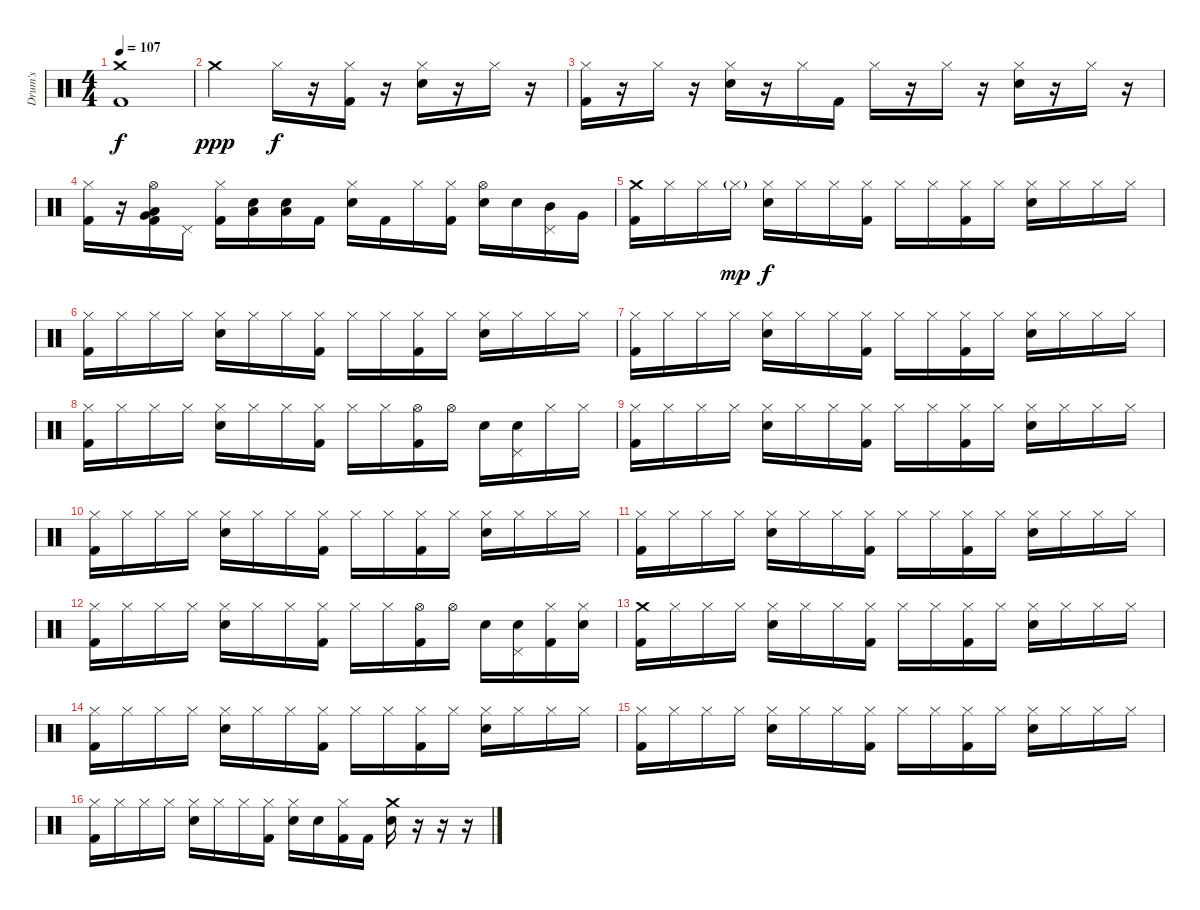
\track ("Drum's" "Drum's") {instrument percussion}
\staff {score}
\articulation defaults
\ts (4 4)
\tempo 107
\clef neutral
\ks c
("Crash medium (hit)" "Kick (hit) 2").1{dy f} |
"Crash medium (hit)".2{dy ppp} "Hi-Hat (closed)".16{dy f} r.16 ("Hi-Hat (closed)" "Kick (hit) 2").16 r.16 ("Hi-Hat (closed)" "Snare (hit) 2").16 r.16 "Hi-Hat (closed)".16 r.16 |
("Hi-Hat (closed)" "Kick (hit) 2").16 r.16 "Hi-Hat (closed)".16 r.16 ("Hi-Hat (closed)" "Snare (hit) 2").16 r.16 "Hi-Hat (closed)".16 "Kick (hit) 2".16 "Hi-Hat (closed)".16 r.16 "Hi-Hat (closed)".16 r.16 ("Hi-Hat (closed)" "Snare (hit) 2").16 r.16 "Hi-Hat (closed)".16 r.16 |
("Hi-Hat (closed)" "Kick (hit) 2").16 r.16 ("Hi-Hat (open)" "Low Floor Tom (hit)" "Very Low Tom (hit)" "Kick (hit) 2").16 "Pedal Hi-Hat (hit)".16 ("Hi-Hat (closed)" "Kick (hit) 2").16 ("Low Floor Tom (hit)" "Snare (hit) 2").16 ("Low Floor Tom (hit)" "Snare (hit) 2").16 "Kick (hit) 2".16 ("Hi-Hat (closed)" "Snare (hit) 2").16 "Kick (hit) 2".16 "Hi-Hat (closed)".16 ("Hi-Hat (closed)" "Kick (hit) 2").16 ("Hi-Hat (open)" "Snare (hit) 2").16 "Snare (hit) 2".16 ("Pedal Hi-Hat (hit)" "Mid Tom (hit)").16 "Very Low Tom (hit)".16 |
("Crash medium (hit)" "Kick (hit) 2").16 "Hi-Hat (closed)".16 "Hi-Hat (closed)".16 "Hi-Hat (closed)"{g}.16{dy mp} ("Hi-Hat (closed)" "Snare (hit) 2").16{dy f} "Hi-Hat (closed)".16 "Hi-Hat (closed)".16 ("Hi-Hat (closed)" "Kick (hit) 2").16 "Hi-Hat (closed)".16 "Hi-Hat (closed)".16 ("Hi-Hat (closed)" "Kick (hit) 2").16 "Hi-Hat (closed)".16 ("Hi-Hat (closed)" "Snare (hit) 2").16 "Hi-Hat (closed)".16 "Hi-Hat (closed)".16 "Hi-Hat (closed)".16 |
("Hi-Hat (closed)" "Kick (hit) 2").16 "Hi-Hat (closed)".16 "Hi-Hat (closed)".16 "Hi-Hat (closed)".16 ("Hi-Hat (closed)" "Snare (hit) 2").16 "Hi-Hat (closed)".16 "Hi-Hat (closed)".16 ("Hi-Hat (closed)" "Kick (hit) 2").16 "Hi-Hat (closed)".16 "Hi-Hat (closed)".16 ("Hi-Hat (closed)" "Kick (hit) 2").16 "Hi-Hat (closed)".16 ("Hi-Hat (closed)" "Snare (hit) 2").16 "Hi-Hat (closed)".16 "Hi-Hat (closed)".16 "Hi-Hat (closed)".16 |
("Hi-Hat (closed)" "Kick (hit) 2").16 "Hi-Hat (closed)".16 "Hi-Hat (closed)".16 "Hi-Hat (closed)".16 ("Hi-Hat (closed)" "Snare (hit) 2").16 "Hi-Hat (closed)".16 "Hi-Hat (closed)".16 ("Hi-Hat (closed)" "Kick (hit) 2").16 "Hi-Hat (closed)".16 "Hi-Hat (closed)".16 ("Hi-Hat (closed)" "Kick (hit) 2").16 "Hi-Hat (closed)".16 ("Hi-Hat (closed)" "Snare (hit) 2").16 "Hi-Hat (closed)".16 "Hi-Hat (closed)".16 "Hi-Hat (closed)".16 |
("Hi-Hat (closed)" "Kick (hit) 2").16 "Hi-Hat (closed)".16 "Hi-Hat (closed)".16 "Hi-Hat (closed)".16 ("Hi-Hat (closed)" "Snare (hit) 2").16 "Hi-Hat (closed)".16 "Hi-Hat (closed)".16 ("Hi-Hat (closed)" "Kick (hit) 2").16 "Hi-Hat (closed)".16 "Hi-Hat (closed)".16 ("Hi-Hat (open)" "Kick (hit) 2").16 "Hi-Hat (open)".16 "Snare (hit) 2".16 ("Pedal Hi-Hat (hit)" "Snare (hit) 2").16 "Hi-Hat (closed)".16 "Hi-Hat (closed)".16 |
("Hi-Hat (closed)" "Kick (hit) 2").16 "Hi-Hat (closed)".16 "Hi-Hat (closed)".16 "Hi-Hat (closed)".16 ("Hi-Hat (closed)" "Snare (hit) 2").16 "Hi-Hat (closed)".16 "Hi-Hat (closed)".16 ("Hi-Hat (closed)" "Kick (hit) 2").16 "Hi-Hat (closed)".16 "Hi-Hat (closed)".16 ("Hi-Hat (closed)" "Kick (hit) 2").16 "Hi-Hat (closed)".16 ("Hi-Hat (closed)" "Snare (hit) 2").16 "Hi-Hat (closed)".16 "Hi-Hat (closed)".16 "Hi-Hat (closed)".16 |
("Hi-Hat (closed)" "Kick (hit) 2").16 "Hi-Hat (closed)".16 "Hi-Hat (closed)".16 "Hi-Hat (closed)".16 ("Hi-Hat (closed)" "Snare (hit) 2").16 "Hi-Hat (closed)".16 "Hi-Hat (closed)".16 ("Hi-Hat (closed)" "Kick (hit) 2").16 "Hi-Hat (closed)".16 "Hi-Hat (closed)".16 ("Hi-Hat (closed)" "Kick (hit) 2").16 "Hi-Hat (closed)".16 ("Hi-Hat (closed)" "Snare (hit) 2").16 "Hi-Hat (closed)".16 "Hi-Hat (closed)".16 "Hi-Hat (closed)".16 |
("Hi-Hat (closed)" "Kick (hit) 2").16 "Hi-Hat (closed)".16 "Hi-Hat (closed)".16 "Hi-Hat (closed)".16 ("Hi-Hat (closed)" "Snare (hit) 2").16 "Hi-Hat (closed)".16 "Hi-Hat (closed)".16 ("Hi-Hat (closed)" "Kick (hit) 2").16 "Hi-Hat (closed)".16 "Hi-Hat (closed)".16 ("Hi-Hat (closed)" "Kick (hit) 2").16 "Hi-Hat (closed)".16 ("Hi-Hat (closed)" "Snare (hit) 2").16 "Hi-Hat (closed)".16 "Hi-Hat (closed)".16 "Hi-Hat (closed)".16 |
("Hi-Hat (closed)" "Kick (hit) 2").16 "Hi-Hat (closed)".16 "Hi-Hat (closed)".16 "Hi-Hat (closed)".16 ("Hi-Hat (closed)" "Snare (hit) 2").16 "Hi-Hat (closed)".16 "Hi-Hat (closed)".16 ("Hi-Hat (closed)" "Kick (hit) 2").16 "Hi-Hat (closed)".16 "Hi-Hat (closed)".16 ("Hi-Hat (open)" "Kick (hit) 2").16 "Hi-Hat (open)".16 "Snare (hit) 2".16 ("Pedal Hi-Hat (hit)" "Snare (hit) 2").16 ("Hi-Hat (closed)" "Kick (hit) 2").16 ("Hi-Hat (closed)" "Snare (hit) 2").16 |
("Crash medium (hit)" "Kick (hit) 2").16 "Hi-Hat (closed)".16 "Hi-Hat (closed)".16 "Hi-Hat (closed)".16 ("Hi-Hat (closed)" "Snare (hit) 2").16 "Hi-Hat (closed)".16 "Hi-Hat (closed)".16 ("Hi-Hat (closed)" "Kick (hit) 2").16 "Hi-Hat (closed)".16 "Hi-Hat (closed)".16 ("Hi-Hat (closed)" "Kick (hit) 2").16 "Hi-Hat (closed)".16 ("Hi-Hat (closed)" "Snare (hit) 2").16 "Hi-Hat (closed)".16 "Hi-Hat (closed)".16 "Hi-Hat (closed)".16 |
("Hi-Hat (closed)" "Kick (hit) 2").16 "Hi-Hat (closed)".16 "Hi-Hat (closed)".16 "Hi-Hat (closed)".16 ("Hi-Hat (closed)" "Snare (hit) 2").16 "Hi-Hat (closed)".16 "Hi-Hat (closed)".16 ("Hi-Hat (closed)" "Kick (hit) 2").16 "Hi-Hat (closed)".16 "Hi-Hat (closed)".16 ("Hi-Hat (closed)" "Kick (hit) 2").16 "Hi-Hat (closed)".16 ("Hi-Hat (closed)" "Snare (hit) 2").16 "Hi-Hat (closed)".16 "Hi-Hat (closed)".16 "Hi-Hat (closed)".16 |
("Hi-Hat (closed)" "Kick (hit) 2").16 "Hi-Hat (closed)".16 "Hi-Hat (closed)".16 "Hi-Hat (closed)".16 ("Hi-Hat (closed)" "Snare (hit) 2").16 "Hi-Hat (closed)".16 "Hi-Hat (closed)".16 ("Hi-Hat (closed)" "Kick (hit) 2").16 "Hi-Hat (closed)".16 "Hi-Hat (closed)".16 ("Hi-Hat (closed)" "Kick (hit) 2").16 "Hi-Hat (closed)".16 ("Hi-Hat (closed)" "Snare (hit) 2").16 "Hi-Hat (closed)".16 "Hi-Hat (closed)".16 "Hi-Hat (closed)".16 |
("Hi-Hat (closed)" "Kick (hit) 2").16 "Hi-Hat (closed)".16 "Hi-Hat (closed)".16 "Hi-Hat (closed)".16 ("Hi-Hat (closed)" "Snare (hit) 2").16 "Hi-Hat (closed)".16 "Hi-Hat (closed)".16 ("Hi-Hat (closed)" "Kick (hit) 2").16 ("Hi-Hat (closed)" "Snare (hit) 2").16 "Snare (hit) 2".16 ("Hi-Hat (closed)" "Kick (hit) 2").16 "Kick (hit) 2".16 ("Crash medium (hit)" "Snare (hit) 2").16 r.16 r.16 r.16
